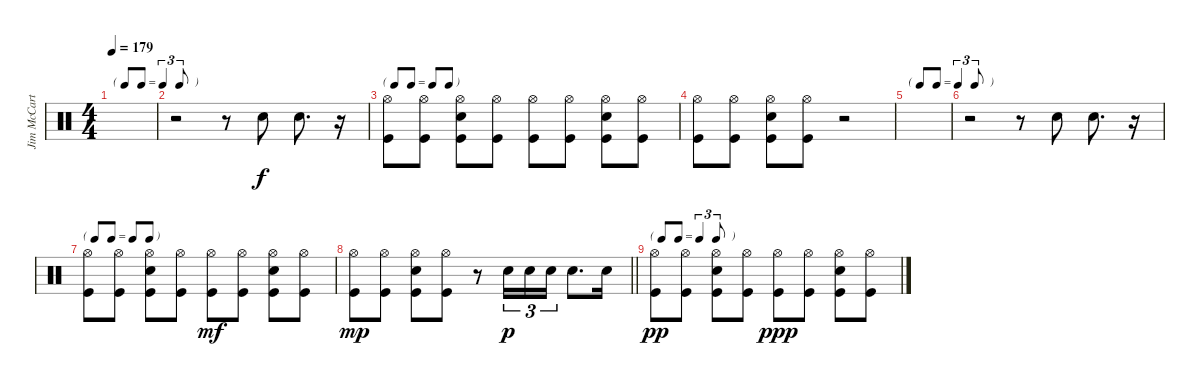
\track ("Jim McCarty" "Jim McCart") {instrument percussion}
\staff {score}
\articulation defaults
\ts (4 4)
\tf triplet8th
\tempo 179
\clef neutral
\ks c
|
r.2 r.8 "Snare (hit) 2".8 "Snare (hit) 2".8{d} r.16 |
\tf none
("Hi-Hat (open)" "Kick (hit)").8 ("Hi-Hat (open)" "Kick (hit)").8 ("Hi-Hat (open)" "Snare (hit) 2" "Kick (hit)").8 ("Hi-Hat (open)" "Kick (hit)").8 ("Hi-Hat (open)" "Kick (hit)").8 ("Hi-Hat (open)" "Kick (hit)").8 ("Hi-Hat (open)" "Snare (hit) 2" "Kick (hit)").8 ("Hi-Hat (open)" "Kick (hit)").8 |
("Hi-Hat (open)" "Kick (hit)").8 ("Hi-Hat (open)" "Kick (hit)").8 ("Hi-Hat (open)" "Snare (hit) 2" "Kick (hit)").8 ("Hi-Hat (open)" "Kick (hit)").8 r.2 |
\tf triplet8th
|
r.2 r.8 "Snare (hit) 2".8 "Snare (hit) 2".8{d} r.16 |
\tf none
("Hi-Hat (open)" "Kick (hit)").8 ("Hi-Hat (open)" "Kick (hit)").8 ("Hi-Hat (open)" "Snare (hit) 2" "Kick (hit)").8 ("Hi-Hat (open)" "Kick (hit)").8 ("Hi-Hat (open)" "Kick (hit)").8{dy mf} ("Hi-Hat (open)" "Kick (hit)").8 ("Hi-Hat (open)" "Snare (hit) 2" "Kick (hit)").8 ("Hi-Hat (open)" "Kick (hit)").8 |
\barLineRight lightlight
("Hi-Hat (open)" "Kick (hit)").8{dy mp} ("Hi-Hat (open)" "Kick (hit)").8 ("Hi-Hat (open)" "Snare (hit) 2" "Kick (hit)").8 ("Hi-Hat (open)" "Kick (hit)").8 r.8 "Snare (hit) 2".16{tu (3 2) dy p} "Snare (hit) 2".16{tu (3 2)} "Snare (hit) 2".16{tu (3 2)} "Snare (hit) 2".8{d} "Snare (hit) 2".16 |
\tf triplet8th
("Hi-Hat (open)" "Kick (hit)").8{dy pp} ("Hi-Hat (open)" "Kick (hit)").8 ("Hi-Hat (open)" "Snare (hit) 2" "Kick (hit)").8 ("Hi-Hat (open)" "Kick (hit)").8 ("Hi-Hat (open)" "Kick (hit)").8{dy ppp} ("Hi-Hat (open)" "Kick (hit)").8 ("Hi-Hat (open)" "Snare (hit) 2" "Kick (hit)").8 ("Hi-Hat (open)" "Kick (hit)").8
